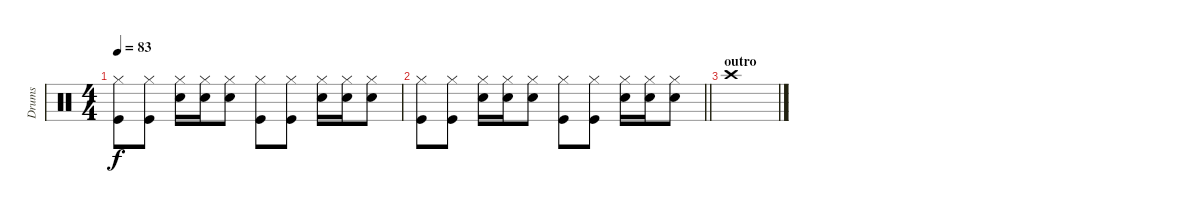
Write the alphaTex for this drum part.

\track ("Drums" "Drums") {instrument percussion}
\staff {score}
\articulation defaults
\ts (4 4)
\tempo 83
\clef neutral
\ks c
("Hi-Hat (closed)" "Kick (hit)").8{dy f} ("Hi-Hat (closed)" "Kick (hit)").8 ("Hi-Hat (closed)" "Electric Snare (hit)").16 ("Hi-Hat (closed)" "Snare (hit) 2").16 ("Hi-Hat (closed)" "Snare (hit) 2").8 ("Hi-Hat (closed)" "Kick (hit)").8 ("Hi-Hat (closed)" "Kick (hit)").8 ("Hi-Hat (closed)" "Electric Snare (hit)").16 ("Hi-Hat (closed)" "Snare (hit) 2").16 ("Hi-Hat (closed)" "Snare (hit) 2").8 |
\barLineRight lightlight
("Hi-Hat (closed)" "Kick (hit)").8 ("Hi-Hat (closed)" "Kick (hit)").8 ("Hi-Hat (closed)" "Electric Snare (hit)").16 ("Hi-Hat (closed)" "Snare (hit) 2").16 ("Hi-Hat (closed)" "Snare (hit) 2").8 ("Hi-Hat (closed)" "Kick (hit)").8 ("Hi-Hat (closed)" "Kick (hit)").8 ("Hi-Hat (closed)" "Electric Snare (hit)").16 ("Hi-Hat (closed)" "Snare (hit) 2").16 ("Hi-Hat (closed)" "Snare (hit) 2").8 |
\section ("" "outro")
"Crash high (hit)".1
